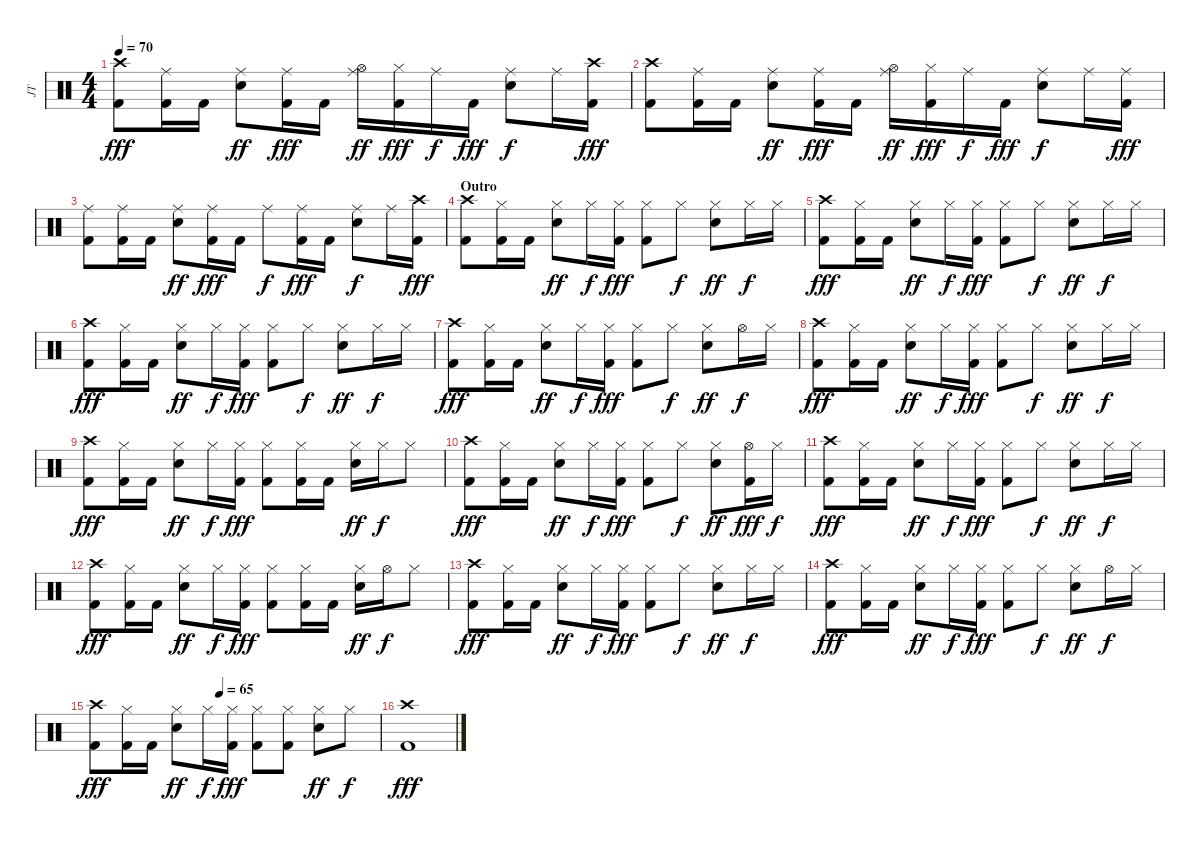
\track ("JT" "JT") {instrument percussion}
\staff {score}
\articulation defaults
\ts (4 4)
\tempo 70
\clef neutral
\ks c
("Crash high (hit)" "Kick (hit) 2").8{dy fff} ("Ride (middle)" "Kick (hit) 2").16 "Kick (hit) 2".16 ("Ride (middle)" "Electric Snare (hit)").8{dy ff} ("Ride (middle)" "Kick (hit) 2").16{dy fff} "Kick (hit) 2".16 ("Ride (middle)" "Hi-Hat (open)").16{dy ff} ("Hi-Hat (closed)" "Kick (hit) 2").16{dy fff} "Ride (middle)".16{dy f} "Kick (hit) 2".16{dy fff} ("Ride (middle)" "Electric Snare (hit)").8{dy f} "Ride (middle)".16 ("Crash high (hit)" "Kick (hit) 2").16{dy fff} |
("Crash high (hit)" "Kick (hit) 2").8 ("Ride (middle)" "Kick (hit) 2").16 "Kick (hit) 2".16 ("Ride (middle)" "Electric Snare (hit)").8{dy ff} ("Ride (middle)" "Kick (hit) 2").16{dy fff} "Kick (hit) 2".16 ("Ride (middle)" "Hi-Hat (open)").16{dy ff} ("Hi-Hat (closed)" "Kick (hit) 2").16{dy fff} "Ride (middle)".16{dy f} "Kick (hit) 2".16{dy fff} ("Ride (middle)" "Electric Snare (hit)").8{dy f} "Ride (middle)".16 ("Ride (middle)" "Kick (hit) 2").16{dy fff} |
("Ride (middle)" "Kick (hit) 2").8 ("Ride (middle)" "Kick (hit) 2").16 "Kick (hit) 2".16 ("Ride (middle)" "Electric Snare (hit)").8{dy ff} ("Ride (middle)" "Kick (hit) 2").16{dy fff} "Kick (hit) 2".16 "Ride (middle)".8{dy f} ("Ride (middle)" "Kick (hit) 2").16{dy fff} "Kick (hit) 2".16 ("Ride (middle)" "Electric Snare (hit)").8{dy f} "Ride (middle)".16 ("Crash high (hit)" "Kick (hit) 2").16{dy fff} |
\section ("" "Outro")
("Crash high (hit)" "Kick (hit) 2").8 ("Hi-Hat (closed)" "Kick (hit) 2").16 "Kick (hit) 2".16 ("Hi-Hat (closed)" "Electric Snare (hit)").8{dy ff} "Hi-Hat (closed)".16{dy f} ("Hi-Hat (closed)" "Kick (hit) 2").16{dy fff} ("Hi-Hat (closed)" "Kick (hit) 2").8 "Hi-Hat (closed)".8{dy f} ("Hi-Hat (closed)" "Electric Snare (hit)").8{dy ff} "Hi-Hat (closed)".16{dy f} "Hi-Hat (closed)".16 |
("Crash high (hit)" "Kick (hit) 2").8{dy fff} ("Hi-Hat (closed)" "Kick (hit) 2").16 "Kick (hit) 2".16 ("Hi-Hat (closed)" "Electric Snare (hit)").8{dy ff} "Hi-Hat (closed)".16{dy f} ("Hi-Hat (closed)" "Kick (hit) 2").16{dy fff} ("Hi-Hat (closed)" "Kick (hit) 2").8 "Hi-Hat (closed)".8{dy f} ("Hi-Hat (closed)" "Electric Snare (hit)").8{dy ff} "Hi-Hat (closed)".16{dy f} "Hi-Hat (closed)".16 |
("Crash high (hit)" "Kick (hit) 2").8{dy fff} ("Hi-Hat (closed)" "Kick (hit) 2").16 "Kick (hit) 2".16 ("Hi-Hat (closed)" "Electric Snare (hit)").8{dy ff} "Hi-Hat (closed)".16{dy f} ("Hi-Hat (closed)" "Kick (hit) 2").16{dy fff} ("Hi-Hat (closed)" "Kick (hit) 2").8 "Hi-Hat (closed)".8{dy f} ("Hi-Hat (closed)" "Electric Snare (hit)").8{dy ff} "Hi-Hat (closed)".16{dy f} "Hi-Hat (closed)".16 |
("Crash high (hit)" "Kick (hit) 2").8{dy fff} ("Hi-Hat (closed)" "Kick (hit) 2").16 "Kick (hit) 2".16 ("Hi-Hat (closed)" "Electric Snare (hit)").8{dy ff} "Hi-Hat (closed)".16{dy f} ("Hi-Hat (closed)" "Kick (hit) 2").16{dy fff} ("Hi-Hat (closed)" "Kick (hit) 2").8 "Hi-Hat (closed)".8{dy f} ("Hi-Hat (closed)" "Electric Snare (hit)").8{dy ff} "Hi-Hat (open)".16{dy f} "Hi-Hat (closed)".16 |
("Crash high (hit)" "Kick (hit) 2").8{dy fff} ("Hi-Hat (closed)" "Kick (hit) 2").16 "Kick (hit) 2".16 ("Hi-Hat (closed)" "Electric Snare (hit)").8{dy ff} "Hi-Hat (closed)".16{dy f} ("Hi-Hat (closed)" "Kick (hit) 2").16{dy fff} ("Hi-Hat (closed)" "Kick (hit) 2").8 "Hi-Hat (closed)".8{dy f} ("Hi-Hat (closed)" "Electric Snare (hit)").8{dy ff} "Hi-Hat (closed)".16{dy f} "Hi-Hat (closed)".16 |
("Crash high (hit)" "Kick (hit) 2").8{dy fff} ("Hi-Hat (closed)" "Kick (hit) 2").16 "Kick (hit) 2".16 ("Hi-Hat (closed)" "Electric Snare (hit)").8{dy ff} "Hi-Hat (closed)".16{dy f} ("Hi-Hat (closed)" "Kick (hit) 2").16{dy fff} ("Hi-Hat (closed)" "Kick (hit) 2").8 ("Hi-Hat (closed)" "Kick (hit) 2").16 "Kick (hit) 2".16 ("Hi-Hat (closed)" "Electric Snare (hit)").16{dy ff} "Hi-Hat (closed)".16{dy f} "Hi-Hat (closed)".8 |
("Crash high (hit)" "Kick (hit) 2").8{dy fff} ("Hi-Hat (closed)" "Kick (hit) 2").16 "Kick (hit) 2".16 ("Hi-Hat (closed)" "Electric Snare (hit)").8{dy ff} "Hi-Hat (closed)".16{dy f} ("Hi-Hat (closed)" "Kick (hit) 2").16{dy fff} ("Hi-Hat (closed)" "Kick (hit) 2").8 "Hi-Hat (closed)".8{dy f} ("Hi-Hat (closed)" "Electric Snare (hit)").8{dy ff} ("Hi-Hat (open)" "Kick (hit) 2").16{dy fff} "Hi-Hat (closed)".16{dy f} |
("Crash high (hit)" "Kick (hit) 2").8{dy fff} ("Hi-Hat (closed)" "Kick (hit) 2").16 "Kick (hit) 2".16 ("Hi-Hat (closed)" "Electric Snare (hit)").8{dy ff} "Hi-Hat (closed)".16{dy f} ("Hi-Hat (closed)" "Kick (hit) 2").16{dy fff} ("Hi-Hat (closed)" "Kick (hit) 2").8 "Hi-Hat (closed)".8{dy f} ("Hi-Hat (closed)" "Electric Snare (hit)").8{dy ff} "Hi-Hat (closed)".16{dy f} "Hi-Hat (closed)".16 |
("Crash high (hit)" "Kick (hit) 2").8{dy fff} ("Hi-Hat (closed)" "Kick (hit) 2").16 "Kick (hit) 2".16 ("Hi-Hat (closed)" "Electric Snare (hit)").8{dy ff} "Hi-Hat (closed)".16{dy f} ("Hi-Hat (closed)" "Kick (hit) 2").16{dy fff} ("Hi-Hat (closed)" "Kick (hit) 2").8 ("Hi-Hat (closed)" "Kick (hit) 2").16 "Kick (hit) 2".16 ("Hi-Hat (closed)" "Electric Snare (hit)").16{dy ff} "Hi-Hat (open)".16{dy f} "Hi-Hat (closed)".8 |
("Crash high (hit)" "Kick (hit) 2").8{dy fff} ("Hi-Hat (closed)" "Kick (hit) 2").16 "Kick (hit) 2".16 ("Hi-Hat (closed)" "Electric Snare (hit)").8{dy ff} "Hi-Hat (closed)".16{dy f} ("Hi-Hat (closed)" "Kick (hit) 2").16{dy fff} ("Hi-Hat (closed)" "Kick (hit) 2").8 "Hi-Hat (closed)".8{dy f} ("Hi-Hat (closed)" "Electric Snare (hit)").8{dy ff} "Hi-Hat (closed)".16{dy f} "Hi-Hat (closed)".16 |
("Crash high (hit)" "Kick (hit) 2").8{dy fff} ("Hi-Hat (closed)" "Kick (hit) 2").16 "Kick (hit) 2".16 ("Hi-Hat (closed)" "Electric Snare (hit)").8{dy ff} "Hi-Hat (closed)".16{dy f} ("Hi-Hat (closed)" "Kick (hit) 2").16{dy fff} ("Hi-Hat (closed)" "Kick (hit) 2").8 "Hi-Hat (closed)".8{dy f} ("Hi-Hat (closed)" "Electric Snare (hit)").8{dy ff} "Hi-Hat (open)".16{dy f} "Hi-Hat (closed)".16 |
\tempo (65 0.4375)
("Crash high (hit)" "Kick (hit) 2").8{dy fff} ("Hi-Hat (closed)" "Kick (hit) 2").16 "Kick (hit) 2".16 ("Hi-Hat (closed)" "Electric Snare (hit)").8{dy ff} "Hi-Hat (closed)".16{dy f} ("Hi-Hat (closed)" "Kick (hit) 2").16{dy fff} ("Hi-Hat (closed)" "Kick (hit) 2").8 ("Hi-Hat (closed)" "Kick (hit) 2").8 ("Hi-Hat (closed)" "Electric Snare (hit)").8{dy ff} "Hi-Hat (closed)".8{dy f} |
("Crash high (hit)" "Kick (hit) 2").1{dy fff}
